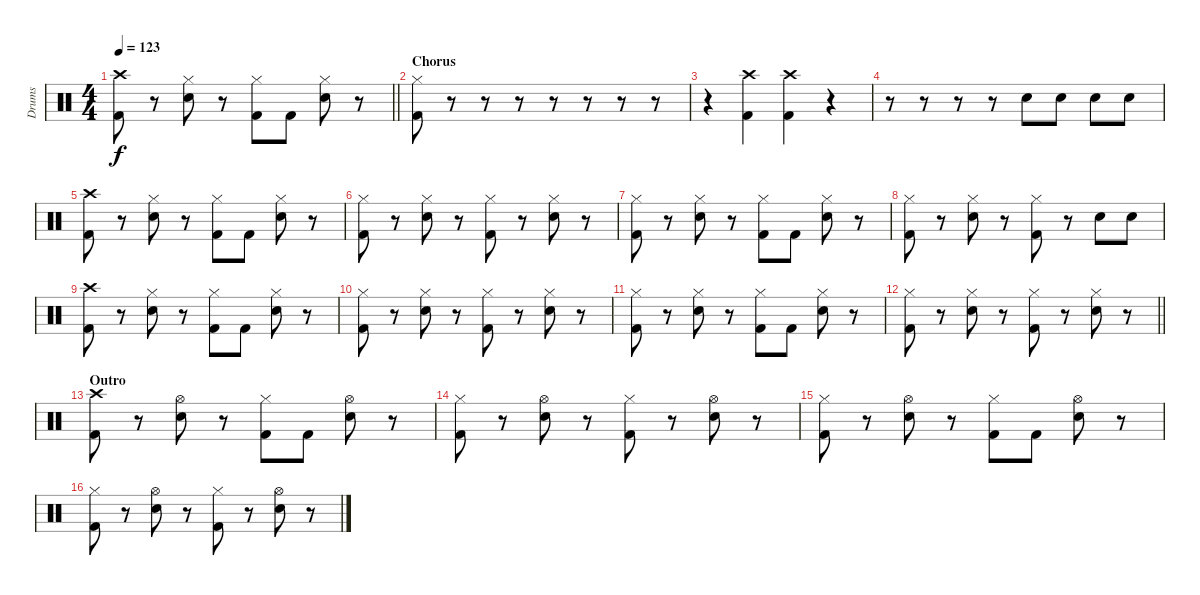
\track ("Drums" "Drums") {instrument percussion}
\staff {score}
\articulation defaults
\ts (4 4)
\tempo 123
\clef neutral
\barLineRight lightlight
\ks c
("Crash high (hit)" "Kick (hit) 2").8{dy f} r.8 ("Hi-Hat (closed)" "Snare (hit) 2").8 r.8 ("Hi-Hat (closed)" "Kick (hit) 2").8 "Kick (hit) 2".8 ("Hi-Hat (closed)" "Snare (hit) 2").8 r.8 |
\section ("" "Chorus")
("Hi-Hat (closed)" "Kick (hit) 2").8 r.8 r.8 r.8 r.8 r.8 r.8 r.8 |
r.4 ("Crash high (hit)" "Kick (hit) 2").4 ("Crash high (hit)" "Kick (hit) 2").4 r.4 |
r.8 r.8 r.8 r.8 "Snare (hit) 2".8 "Snare (hit) 2".8 "Snare (hit) 2".8 "Snare (hit) 2".8 |
("Crash high (hit)" "Kick (hit) 2").8 r.8 ("Hi-Hat (closed)" "Snare (hit) 2").8 r.8 ("Hi-Hat (closed)" "Kick (hit) 2").8 "Kick (hit) 2".8 ("Hi-Hat (closed)" "Snare (hit) 2").8 r.8 |
("Hi-Hat (closed)" "Kick (hit) 2").8 r.8 ("Hi-Hat (closed)" "Snare (hit) 2").8 r.8 ("Hi-Hat (closed)" "Kick (hit) 2").8 r.8 ("Hi-Hat (closed)" "Snare (hit) 2").8 r.8 |
("Hi-Hat (closed)" "Kick (hit) 2").8 r.8 ("Hi-Hat (closed)" "Snare (hit) 2").8 r.8 ("Hi-Hat (closed)" "Kick (hit) 2").8 "Kick (hit) 2".8 ("Hi-Hat (closed)" "Snare (hit) 2").8 r.8 |
("Hi-Hat (closed)" "Kick (hit) 2").8 r.8 ("Hi-Hat (closed)" "Snare (hit) 2").8 r.8 ("Hi-Hat (closed)" "Kick (hit) 2").8 r.8 "Snare (hit) 2".8 "Snare (hit) 2".8 |
("Crash high (hit)" "Kick (hit) 2").8 r.8 ("Hi-Hat (closed)" "Snare (hit) 2").8 r.8 ("Hi-Hat (closed)" "Kick (hit) 2").8 "Kick (hit) 2".8 ("Hi-Hat (closed)" "Snare (hit) 2").8 r.8 |
("Hi-Hat (closed)" "Kick (hit) 2").8 r.8 ("Hi-Hat (closed)" "Snare (hit) 2").8 r.8 ("Hi-Hat (closed)" "Kick (hit) 2").8 r.8 ("Hi-Hat (closed)" "Snare (hit) 2").8 r.8 |
("Hi-Hat (closed)" "Kick (hit) 2").8 r.8 ("Hi-Hat (closed)" "Snare (hit) 2").8 r.8 ("Hi-Hat (closed)" "Kick (hit) 2").8 "Kick (hit) 2".8 ("Hi-Hat (closed)" "Snare (hit) 2").8 r.8 |
\barLineRight lightlight
("Hi-Hat (closed)" "Kick (hit) 2").8 r.8 ("Hi-Hat (closed)" "Snare (hit) 2").8 r.8 ("Hi-Hat (closed)" "Kick (hit) 2").8 r.8 ("Hi-Hat (closed)" "Snare (hit) 2").8 r.8 |
\section ("" "Outro")
("Crash high (hit)" "Kick (hit) 2").8 r.8 ("Hi-Hat (open)" "Snare (hit) 2").8 r.8 ("Hi-Hat (closed)" "Kick (hit) 2").8 "Kick (hit) 2".8 ("Hi-Hat (open)" "Snare (hit) 2").8 r.8 |
("Hi-Hat (closed)" "Kick (hit) 2").8 r.8 ("Hi-Hat (open)" "Snare (hit) 2").8 r.8 ("Hi-Hat (closed)" "Kick (hit) 2").8 r.8 ("Hi-Hat (open)" "Snare (hit) 2").8 r.8 |
("Hi-Hat (closed)" "Kick (hit) 2").8 r.8 ("Hi-Hat (open)" "Snare (hit) 2").8 r.8 ("Hi-Hat (closed)" "Kick (hit) 2").8 "Kick (hit) 2".8 ("Hi-Hat (open)" "Snare (hit) 2").8 r.8 |
("Hi-Hat (closed)" "Kick (hit) 2").8 r.8 ("Hi-Hat (open)" "Snare (hit) 2").8 r.8 ("Hi-Hat (closed)" "Kick (hit) 2").8 r.8 ("Hi-Hat (open)" "Snare (hit) 2").8 r.8
